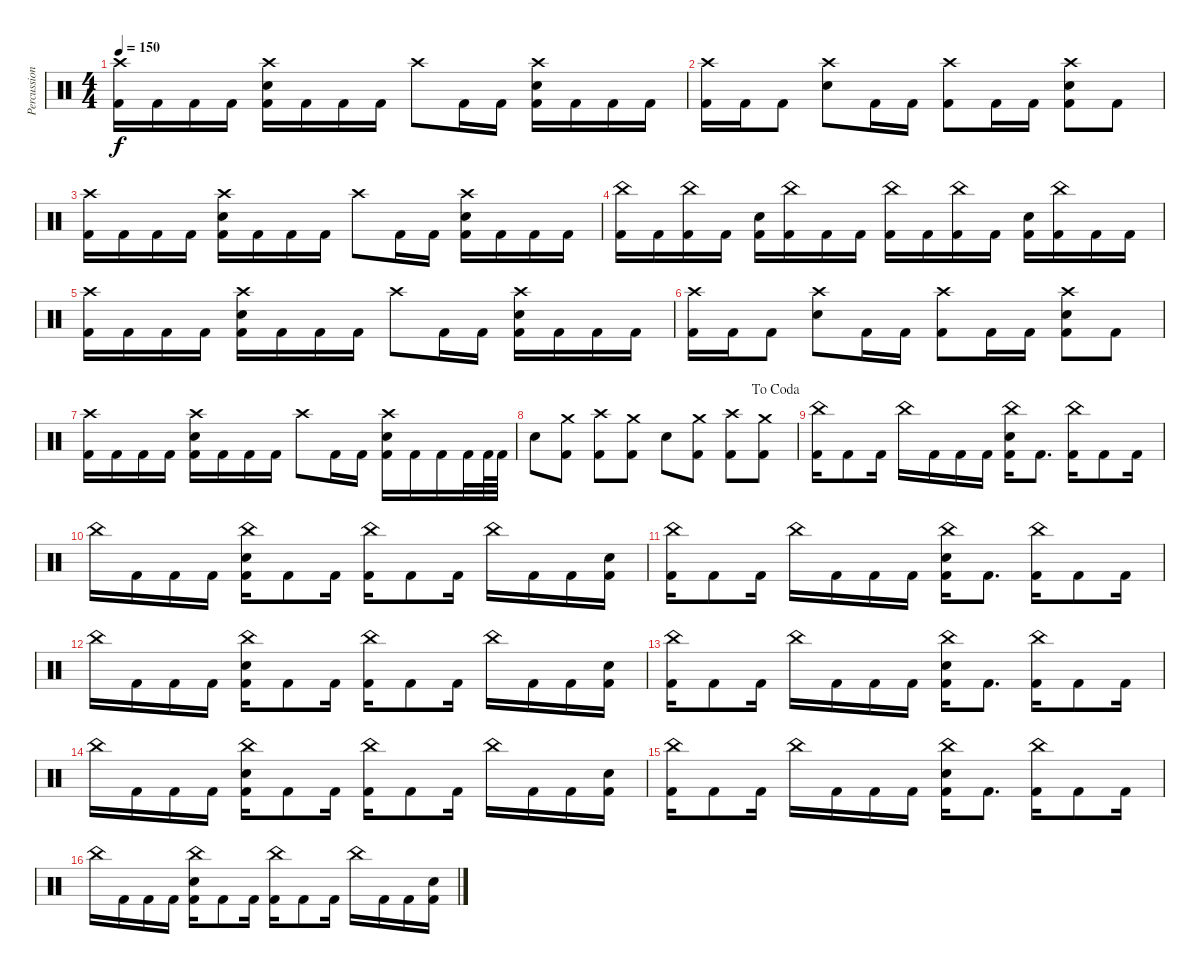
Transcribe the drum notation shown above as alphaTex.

\track ("Percussion" "Percussion") {instrument percussion}
\staff {score}
\articulation defaults
\ts (4 4)
\tempo 150
\clef neutral
\ks c
("Crash high (hit)" "Kick (hit) 2").16{dy f} "Kick (hit) 2".16 "Kick (hit) 2".16 "Kick (hit) 2".16 ("Crash high (hit)" "Electric Snare (hit)" "Kick (hit) 2").16 "Kick (hit) 2".16 "Kick (hit) 2".16 "Kick (hit) 2".16 "Crash high (hit)".8 "Kick (hit) 2".16 "Kick (hit) 2".16 ("Crash high (hit)" "Electric Snare (hit)" "Kick (hit) 2").16 "Kick (hit) 2".16 "Kick (hit) 2".16 "Kick (hit) 2".16 |
("Crash high (hit)" "Kick (hit) 2").16 "Kick (hit) 2".16 "Kick (hit) 2".8 ("Crash high (hit)" "Electric Snare (hit)").8 "Kick (hit) 2".16 "Kick (hit) 2".16 ("Crash high (hit)" "Kick (hit) 2").8 "Kick (hit) 2".16 "Kick (hit) 2".16 ("Crash high (hit)" "Electric Snare (hit)" "Kick (hit) 2").8 "Kick (hit) 2".8 |
("Crash high (hit)" "Kick (hit) 2").16 "Kick (hit) 2".16 "Kick (hit) 2".16 "Kick (hit) 2".16 ("Crash high (hit)" "Electric Snare (hit)" "Kick (hit) 2").16 "Kick (hit) 2".16 "Kick (hit) 2".16 "Kick (hit) 2".16 "Crash high (hit)".8 "Kick (hit) 2".16 "Kick (hit) 2".16 ("Crash high (hit)" "Electric Snare (hit)" "Kick (hit) 2").16 "Kick (hit) 2".16 "Kick (hit) 2".16 "Kick (hit) 2".16 |
("China (hit)" "Kick (hit) 2").16 "Kick (hit) 2".16 ("China (hit)" "Kick (hit) 2").16 "Kick (hit) 2".16 ("Electric Snare (hit)" "Kick (hit) 2").16 ("China (hit)" "Kick (hit) 2").16 "Kick (hit) 2".16 "Kick (hit) 2".16 ("China (hit)" "Kick (hit) 2").16 "Kick (hit) 2".16 ("China (hit)" "Kick (hit) 2").16 "Kick (hit) 2".16 ("Electric Snare (hit)" "Kick (hit) 2").16 ("China (hit)" "Kick (hit) 2").16 "Kick (hit) 2".16 "Kick (hit) 2".16 |
("Crash high (hit)" "Kick (hit) 2").16 "Kick (hit) 2".16 "Kick (hit) 2".16 "Kick (hit) 2".16 ("Crash high (hit)" "Electric Snare (hit)" "Kick (hit) 2").16 "Kick (hit) 2".16 "Kick (hit) 2".16 "Kick (hit) 2".16 "Crash high (hit)".8 "Kick (hit) 2".16 "Kick (hit) 2".16 ("Crash high (hit)" "Electric Snare (hit)" "Kick (hit) 2").16 "Kick (hit) 2".16 "Kick (hit) 2".16 "Kick (hit) 2".16 |
("Crash high (hit)" "Kick (hit) 2").16 "Kick (hit) 2".16 "Kick (hit) 2".8 ("Crash high (hit)" "Electric Snare (hit)").8 "Kick (hit) 2".16 "Kick (hit) 2".16 ("Crash high (hit)" "Kick (hit) 2").8 "Kick (hit) 2".16 "Kick (hit) 2".16 ("Crash high (hit)" "Electric Snare (hit)" "Kick (hit) 2").8 "Kick (hit) 2".8 |
("Crash high (hit)" "Kick (hit) 2").16 "Kick (hit) 2".16 "Kick (hit) 2".16 "Kick (hit) 2".16 ("Crash high (hit)" "Electric Snare (hit)" "Kick (hit) 2").16 "Kick (hit) 2".16 "Kick (hit) 2".16 "Kick (hit) 2".16 "Crash high (hit)".8 "Kick (hit) 2".16 "Kick (hit) 2".16 ("Crash high (hit)" "Electric Snare (hit)" "Kick (hit) 2").16 "Kick (hit) 2".16 "Kick (hit) 2".16 "Kick (hit) 2".32 "Kick (hit) 2".64 "Kick (hit) 2".64 |
\jump dacoda "Electric Snare (hit)".8
("Crash medium (hit)" "Kick (hit) 2").8 ("Crash high (hit)" "Kick (hit) 2").8 ("Crash medium (hit)" "Kick (hit) 2").8 "Electric Snare (hit)".8 ("Crash medium (hit)" "Kick (hit) 2").8 ("Crash high (hit)" "Kick (hit) 2").8 ("Crash medium (hit)" "Kick (hit) 2").8 |
("China (hit)" "Kick (hit) 2").16 "Kick (hit) 2".8 "Kick (hit) 2".16 "China (hit)".16 "Kick (hit) 2".16 "Kick (hit) 2".16 "Kick (hit) 2".16 ("China (hit)" "Electric Snare (hit)" "Kick (hit) 2").16 "Kick (hit) 2".8{d} ("China (hit)" "Kick (hit) 2").16 "Kick (hit) 2".8 "Kick (hit) 2".16 |
"China (hit)".16 "Kick (hit) 2".16 "Kick (hit) 2".16 "Kick (hit) 2".16 ("China (hit)" "Electric Snare (hit)" "Kick (hit) 2").16 "Kick (hit) 2".8 "Kick (hit) 2".16 ("China (hit)" "Kick (hit) 2").16 "Kick (hit) 2".8 "Kick (hit) 2".16 "China (hit)".16 "Kick (hit) 2".16 "Kick (hit) 2".16 ("Electric Snare (hit)" "Kick (hit) 2").16 |
("China (hit)" "Kick (hit) 2").16 "Kick (hit) 2".8 "Kick (hit) 2".16 "China (hit)".16 "Kick (hit) 2".16 "Kick (hit) 2".16 "Kick (hit) 2".16 ("China (hit)" "Electric Snare (hit)" "Kick (hit) 2").16 "Kick (hit) 2".8{d} ("China (hit)" "Kick (hit) 2").16 "Kick (hit) 2".8 "Kick (hit) 2".16 |
"China (hit)".16 "Kick (hit) 2".16 "Kick (hit) 2".16 "Kick (hit) 2".16 ("China (hit)" "Electric Snare (hit)" "Kick (hit) 2").16 "Kick (hit) 2".8 "Kick (hit) 2".16 ("China (hit)" "Kick (hit) 2").16 "Kick (hit) 2".8 "Kick (hit) 2".16 "China (hit)".16 "Kick (hit) 2".16 "Kick (hit) 2".16 ("Electric Snare (hit)" "Kick (hit) 2").16 |
("China (hit)" "Kick (hit) 2").16 "Kick (hit) 2".8 "Kick (hit) 2".16 "China (hit)".16 "Kick (hit) 2".16 "Kick (hit) 2".16 "Kick (hit) 2".16 ("China (hit)" "Electric Snare (hit)" "Kick (hit) 2").16 "Kick (hit) 2".8{d} ("China (hit)" "Kick (hit) 2").16 "Kick (hit) 2".8 "Kick (hit) 2".16 |
"China (hit)".16 "Kick (hit) 2".16 "Kick (hit) 2".16 "Kick (hit) 2".16 ("China (hit)" "Electric Snare (hit)" "Kick (hit) 2").16 "Kick (hit) 2".8 "Kick (hit) 2".16 ("China (hit)" "Kick (hit) 2").16 "Kick (hit) 2".8 "Kick (hit) 2".16 "China (hit)".16 "Kick (hit) 2".16 "Kick (hit) 2".16 ("Electric Snare (hit)" "Kick (hit) 2").16 |
("China (hit)" "Kick (hit) 2").16 "Kick (hit) 2".8 "Kick (hit) 2".16 "China (hit)".16 "Kick (hit) 2".16 "Kick (hit) 2".16 "Kick (hit) 2".16 ("China (hit)" "Electric Snare (hit)" "Kick (hit) 2").16 "Kick (hit) 2".8{d} ("China (hit)" "Kick (hit) 2").16 "Kick (hit) 2".8 "Kick (hit) 2".16 |
"China (hit)".16 "Kick (hit) 2".16 "Kick (hit) 2".16 "Kick (hit) 2".16 ("China (hit)" "Electric Snare (hit)" "Kick (hit) 2").16 "Kick (hit) 2".8 "Kick (hit) 2".16 ("China (hit)" "Kick (hit) 2").16 "Kick (hit) 2".8 "Kick (hit) 2".16 "China (hit)".16 "Kick (hit) 2".16 "Kick (hit) 2".16 ("Electric Snare (hit)" "Kick (hit) 2").16
